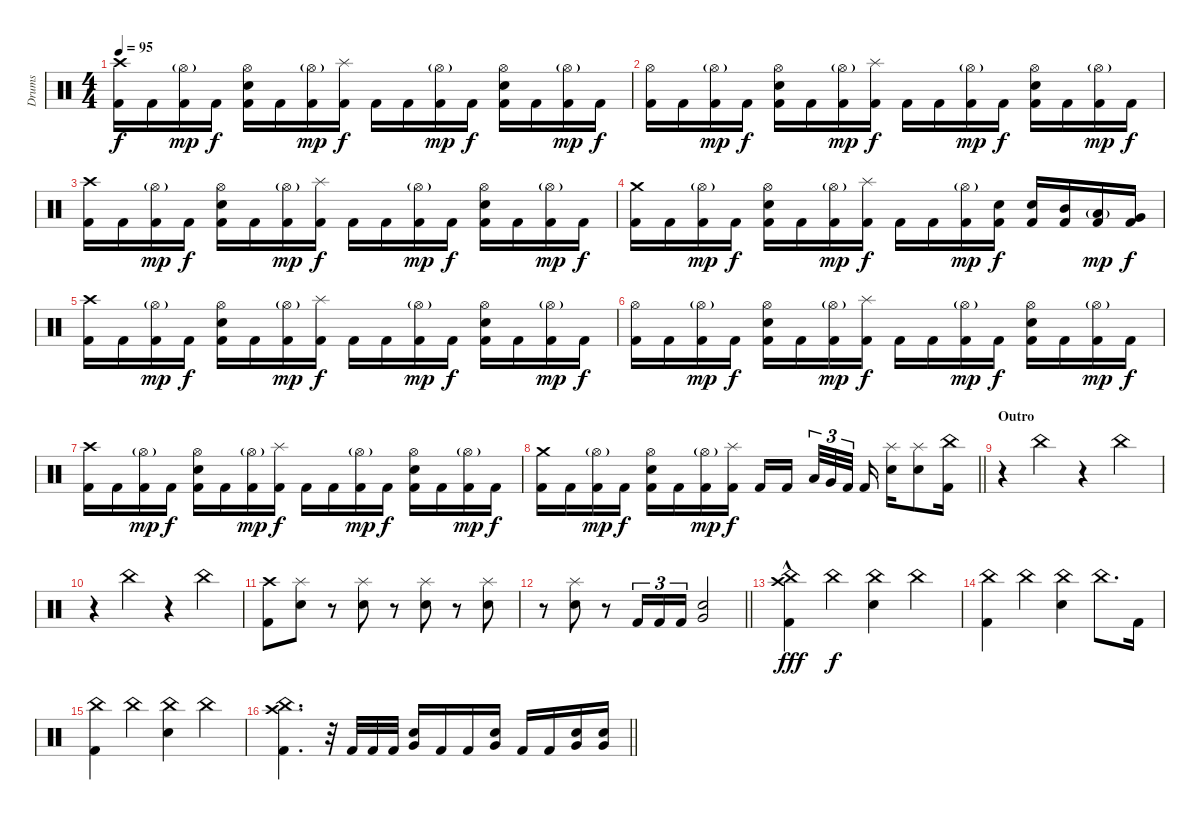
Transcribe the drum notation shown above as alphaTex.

\track ("Drums" "Drums") {instrument percussion}
\staff {score}
\articulation defaults
\ts (4 4)
\tempo 95
\clef neutral
\ks c
("Crash high (hit)" "Kick (hit) 2").16{dy f} "Kick (hit) 2".16 ("Hi-Hat (open)"{g} "Kick (hit) 2").16{dy mp} "Kick (hit) 2".16{dy f} ("Hi-Hat (open)" "Electric Snare (hit)" "Kick (hit) 2").16 "Kick (hit) 2".16 ("Hi-Hat (open)"{g} "Kick (hit) 2").16{dy mp} ("Splash (hit)" "Kick (hit) 2").16{dy f} "Kick (hit) 2".16 "Kick (hit) 2".16 ("Hi-Hat (open)"{g} "Kick (hit) 2").16{dy mp} "Kick (hit) 2".16{dy f} ("Hi-Hat (open)" "Electric Snare (hit)" "Kick (hit) 2").16 "Kick (hit) 2".16 ("Hi-Hat (open)"{g} "Kick (hit) 2").16{dy mp} "Kick (hit) 2".16{dy f} |
("Hi-Hat (open)" "Kick (hit) 2").16 "Kick (hit) 2".16 ("Hi-Hat (open)"{g} "Kick (hit) 2").16{dy mp} "Kick (hit) 2".16{dy f} ("Hi-Hat (open)" "Electric Snare (hit)" "Kick (hit) 2").16 "Kick (hit) 2".16 ("Hi-Hat (open)"{g} "Kick (hit) 2").16{dy mp} ("Splash (hit)" "Kick (hit) 2").16{dy f} "Kick (hit) 2".16 "Kick (hit) 2".16 ("Hi-Hat (open)"{g} "Kick (hit) 2").16{dy mp} "Kick (hit) 2".16{dy f} ("Hi-Hat (open)" "Electric Snare (hit)" "Kick (hit) 2").16 "Kick (hit) 2".16 ("Hi-Hat (open)"{g} "Kick (hit) 2").16{dy mp} "Kick (hit) 2".16{dy f} |
("Crash high (hit)" "Kick (hit) 2").16 "Kick (hit) 2".16 ("Hi-Hat (open)"{g} "Kick (hit) 2").16{dy mp} "Kick (hit) 2".16{dy f} ("Hi-Hat (open)" "Electric Snare (hit)" "Kick (hit) 2").16 "Kick (hit) 2".16 ("Hi-Hat (open)"{g} "Kick (hit) 2").16{dy mp} ("Splash (hit)" "Kick (hit) 2").16{dy f} "Kick (hit) 2".16 "Kick (hit) 2".16 ("Hi-Hat (open)"{g} "Kick (hit) 2").16{dy mp} "Kick (hit) 2".16{dy f} ("Hi-Hat (open)" "Electric Snare (hit)" "Kick (hit) 2").16 "Kick (hit) 2".16 ("Hi-Hat (open)"{g} "Kick (hit) 2").16{dy mp} "Kick (hit) 2".16{dy f} |
("Crash medium (hit)" "Kick (hit) 2").16 "Kick (hit) 2".16 ("Hi-Hat (open)"{g} "Kick (hit) 2").16{dy mp} "Kick (hit) 2".16{dy f} ("Hi-Hat (open)" "Electric Snare (hit)" "Kick (hit) 2").16 "Kick (hit) 2".16 ("Hi-Hat (open)"{g} "Kick (hit) 2").16{dy mp} ("Splash (hit)" "Kick (hit) 2").16{dy f} "Kick (hit) 2".16 "Kick (hit) 2".16 ("Hi-Hat (open)"{g} "Kick (hit) 2").16{dy mp} ("Electric Snare (hit)" "Kick (hit) 2").16{dy f} ("Electric Snare (hit)" "Kick (hit) 2").16 ("Mid Tom (hit)" "Kick (hit) 2").16 ("Low Tom (hit)"{g} "Kick (hit) 2").16{dy mp} ("Very Low Tom (hit)" "Kick (hit) 2").16{dy f} |
("Crash high (hit)" "Kick (hit) 2").16 "Kick (hit) 2".16 ("Hi-Hat (open)"{g} "Kick (hit) 2").16{dy mp} "Kick (hit) 2".16{dy f} ("Hi-Hat (open)" "Electric Snare (hit)" "Kick (hit) 2").16 "Kick (hit) 2".16 ("Hi-Hat (open)"{g} "Kick (hit) 2").16{dy mp} ("Splash (hit)" "Kick (hit) 2").16{dy f} "Kick (hit) 2".16 "Kick (hit) 2".16 ("Hi-Hat (open)"{g} "Kick (hit) 2").16{dy mp} "Kick (hit) 2".16{dy f} ("Hi-Hat (open)" "Electric Snare (hit)" "Kick (hit) 2").16 "Kick (hit) 2".16 ("Hi-Hat (open)"{g} "Kick (hit) 2").16{dy mp} "Kick (hit) 2".16{dy f} |
("Hi-Hat (open)" "Kick (hit) 2").16 "Kick (hit) 2".16 ("Hi-Hat (open)"{g} "Kick (hit) 2").16{dy mp} "Kick (hit) 2".16{dy f} ("Hi-Hat (open)" "Electric Snare (hit)" "Kick (hit) 2").16 "Kick (hit) 2".16 ("Hi-Hat (open)"{g} "Kick (hit) 2").16{dy mp} ("Splash (hit)" "Kick (hit) 2").16{dy f} "Kick (hit) 2".16 "Kick (hit) 2".16 ("Hi-Hat (open)"{g} "Kick (hit) 2").16{dy mp} "Kick (hit) 2".16{dy f} ("Hi-Hat (open)" "Electric Snare (hit)" "Kick (hit) 2").16 "Kick (hit) 2".16 ("Hi-Hat (open)"{g} "Kick (hit) 2").16{dy mp} "Kick (hit) 2".16{dy f} |
("Crash high (hit)" "Kick (hit) 2").16 "Kick (hit) 2".16 ("Hi-Hat (open)"{g} "Kick (hit) 2").16{dy mp} "Kick (hit) 2".16{dy f} ("Hi-Hat (open)" "Electric Snare (hit)" "Kick (hit) 2").16 "Kick (hit) 2".16 ("Hi-Hat (open)"{g} "Kick (hit) 2").16{dy mp} ("Splash (hit)" "Kick (hit) 2").16{dy f} "Kick (hit) 2".16 "Kick (hit) 2".16 ("Hi-Hat (open)"{g} "Kick (hit) 2").16{dy mp} "Kick (hit) 2".16{dy f} ("Hi-Hat (open)" "Electric Snare (hit)" "Kick (hit) 2").16 "Kick (hit) 2".16 ("Hi-Hat (open)"{g} "Kick (hit) 2").16{dy mp} "Kick (hit) 2".16{dy f} |
\barLineRight lightlight
("Crash medium (hit)" "Kick (hit) 2").16 "Kick (hit) 2".16 ("Hi-Hat (open)"{g} "Kick (hit) 2").16{dy mp} "Kick (hit) 2".16{dy f} ("Hi-Hat (open)" "Electric Snare (hit)" "Kick (hit) 2").16 "Kick (hit) 2".16 ("Hi-Hat (open)"{g} "Kick (hit) 2").16{dy mp} ("Splash (hit)" "Kick (hit) 2").16{dy f} "Kick (hit) 2".16 "Kick (hit) 2".16{beam splitsecondary} "Low Tom (hit)".32{tu (3 2)} "Very Low Tom (hit)".32{tu (3 2)} "Kick (hit) 2".32{tu (3 2) beam splitsecondary} "Kick (hit) 2".16 ("Splash (hit)" "Electric Snare (hit)").16 ("Splash (hit)" "Electric Snare (hit)").8 ("China (hit)" "Kick (hit) 2").16 |
\section ("" "Outro")
r.4 "China (hit)".4 r.4 "China (hit)".4 |
r.4 "China (hit)".4 r.4 "China (hit)".4 |
("Crash high (hit)" "Kick (hit) 2").8 ("Splash (hit)" "Electric Snare (hit)").8 r.8 ("Splash (hit)" "Electric Snare (hit)").8 r.8 ("Splash (hit)" "Electric Snare (hit)").8 r.8 ("Splash (hit)" "Electric Snare (hit)").8 |
\barLineRight lightlight
r.8 ("Splash (hit)" "Electric Snare (hit)").8 r.8 "Kick (hit) 2".16{tu (3 2)} "Kick (hit) 2".16{tu (3 2)} "Kick (hit) 2".16{tu (3 2)} ("Very Low Tom (hit)" "Electric Snare (hit)").2 |
("Crash high (hit)" "China (hit)" "Kick (hit) 2"{hac}).4{dy fff} "China (hit)".4{dy f} ("China (hit)" "Electric Snare (hit)").4 "China (hit)".4 |
("China (hit)" "Kick (hit) 2").4 "China (hit)".4 ("China (hit)" "Electric Snare (hit)").4 "China (hit)".8{d} "Kick (hit) 2".16 |
("China (hit)" "Kick (hit) 2").4 "China (hit)".4 ("China (hit)" "Electric Snare (hit)").4 "China (hit)".4 |
\barLineRight lightlight
("Crash high (hit)" "China (hit)" "Kick (hit) 2").4{d} r.32 "Kick (hit) 2".32 "Kick (hit) 2".32 "Kick (hit) 2".32 ("Very Low Tom (hit)" "Electric Snare (hit)").16 "Kick (hit) 2".16 "Kick (hit) 2".16 ("Very Low Tom (hit)" "Electric Snare (hit)").16 "Kick (hit) 2".16 "Kick (hit) 2".16 ("Very Low Tom (hit)" "Electric Snare (hit)").16 ("Very Low Tom (hit)" "Electric Snare (hit)").16
